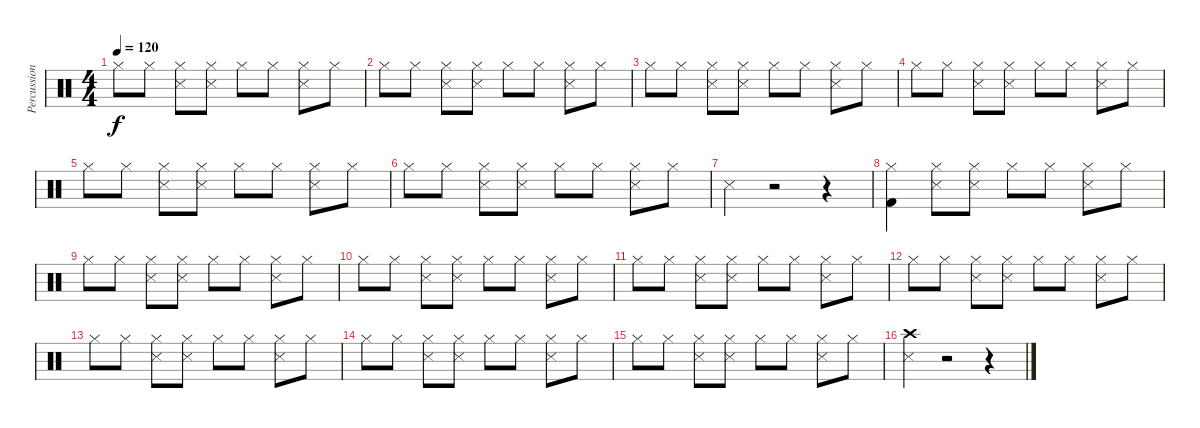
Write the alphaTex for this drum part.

\track ("Percussion" "Percussion") {instrument percussion}
\staff {score}
\articulation defaults
\ts (4 4)
\tempo 120
\clef neutral
\ks c "Hi-Hat (closed)".8{dy f} "Hi-Hat (closed)".8
("Hi-Hat (closed)" "Snare (side stick) 3").8 ("Hi-Hat (closed)" "Snare (side stick) 3").8 "Hi-Hat (closed)".8 "Hi-Hat (closed)".8 ("Hi-Hat (closed)" "Snare (side stick) 3").8 "Hi-Hat (closed)".8 |
"Hi-Hat (closed)".8 "Hi-Hat (closed)".8 ("Hi-Hat (closed)" "Snare (side stick) 3").8 ("Hi-Hat (closed)" "Snare (side stick) 3").8 "Hi-Hat (closed)".8 "Hi-Hat (closed)".8 ("Hi-Hat (closed)" "Snare (side stick) 3").8 "Hi-Hat (closed)".8 |
"Hi-Hat (closed)".8 "Hi-Hat (closed)".8 ("Hi-Hat (closed)" "Snare (side stick) 3").8 ("Hi-Hat (closed)" "Snare (side stick) 3").8 "Hi-Hat (closed)".8 "Hi-Hat (closed)".8 ("Hi-Hat (closed)" "Snare (side stick) 3").8 "Hi-Hat (closed)".8 |
"Hi-Hat (closed)".8 "Hi-Hat (closed)".8 ("Hi-Hat (closed)" "Snare (side stick) 3").8 ("Hi-Hat (closed)" "Snare (side stick) 3").8 "Hi-Hat (closed)".8 "Hi-Hat (closed)".8 ("Hi-Hat (closed)" "Snare (side stick) 3").8 "Hi-Hat (closed)".8 |
"Hi-Hat (closed)".8 "Hi-Hat (closed)".8 ("Hi-Hat (closed)" "Snare (side stick) 3").8 ("Hi-Hat (closed)" "Snare (side stick) 3").8 "Hi-Hat (closed)".8 "Hi-Hat (closed)".8 ("Hi-Hat (closed)" "Snare (side stick) 3").8 "Hi-Hat (closed)".8 |
"Hi-Hat (closed)".8 "Hi-Hat (closed)".8 ("Hi-Hat (closed)" "Snare (side stick) 3").8 ("Hi-Hat (closed)" "Snare (side stick) 3").8 "Hi-Hat (closed)".8 "Hi-Hat (closed)".8 ("Hi-Hat (closed)" "Snare (side stick) 3").8 "Hi-Hat (closed)".8 |
"Snare (side stick) 3".4 r.2 r.4 |
("Hi-Hat (closed)" "Kick (hit) 2").4 ("Hi-Hat (closed)" "Snare (side stick) 3").8 ("Hi-Hat (closed)" "Snare (side stick) 3").8 "Hi-Hat (closed)".8 "Hi-Hat (closed)".8 ("Hi-Hat (closed)" "Snare (side stick) 3").8 "Hi-Hat (closed)".8 |
"Hi-Hat (closed)".8 "Hi-Hat (closed)".8 ("Hi-Hat (closed)" "Snare (side stick) 3").8 ("Hi-Hat (closed)" "Snare (side stick) 3").8 "Hi-Hat (closed)".8 "Hi-Hat (closed)".8 ("Hi-Hat (closed)" "Snare (side stick) 3").8 "Hi-Hat (closed)".8 |
"Hi-Hat (closed)".8 "Hi-Hat (closed)".8 ("Hi-Hat (closed)" "Snare (side stick) 3").8 ("Hi-Hat (closed)" "Snare (side stick) 3").8 "Hi-Hat (closed)".8 "Hi-Hat (closed)".8 ("Hi-Hat (closed)" "Snare (side stick) 3").8 "Hi-Hat (closed)".8 |
"Hi-Hat (closed)".8 "Hi-Hat (closed)".8 ("Hi-Hat (closed)" "Snare (side stick) 3").8 ("Hi-Hat (closed)" "Snare (side stick) 3").8 "Hi-Hat (closed)".8 "Hi-Hat (closed)".8 ("Hi-Hat (closed)" "Snare (side stick) 3").8 "Hi-Hat (closed)".8 |
"Hi-Hat (closed)".8 "Hi-Hat (closed)".8 ("Hi-Hat (closed)" "Snare (side stick) 3").8 ("Hi-Hat (closed)" "Snare (side stick) 3").8 "Hi-Hat (closed)".8 "Hi-Hat (closed)".8 ("Hi-Hat (closed)" "Snare (side stick) 3").8 "Hi-Hat (closed)".8 |
"Hi-Hat (closed)".8 "Hi-Hat (closed)".8 ("Hi-Hat (closed)" "Snare (side stick) 3").8 ("Hi-Hat (closed)" "Snare (side stick) 3").8 "Hi-Hat (closed)".8 "Hi-Hat (closed)".8 ("Hi-Hat (closed)" "Snare (side stick) 3").8 "Hi-Hat (closed)".8 |
"Hi-Hat (closed)".8 "Hi-Hat (closed)".8 ("Hi-Hat (closed)" "Snare (side stick) 3").8 ("Hi-Hat (closed)" "Snare (side stick) 3").8 "Hi-Hat (closed)".8 "Hi-Hat (closed)".8 ("Hi-Hat (closed)" "Snare (side stick) 3").8 "Hi-Hat (closed)".8 |
"Hi-Hat (closed)".8 "Hi-Hat (closed)".8 ("Hi-Hat (closed)" "Snare (side stick) 3").8 ("Hi-Hat (closed)" "Snare (side stick) 3").8 "Hi-Hat (closed)".8 "Hi-Hat (closed)".8 ("Hi-Hat (closed)" "Snare (side stick) 3").8 "Hi-Hat (closed)".8 |
("Crash high (hit)" "Snare (side stick) 3").4 r.2 r.4
